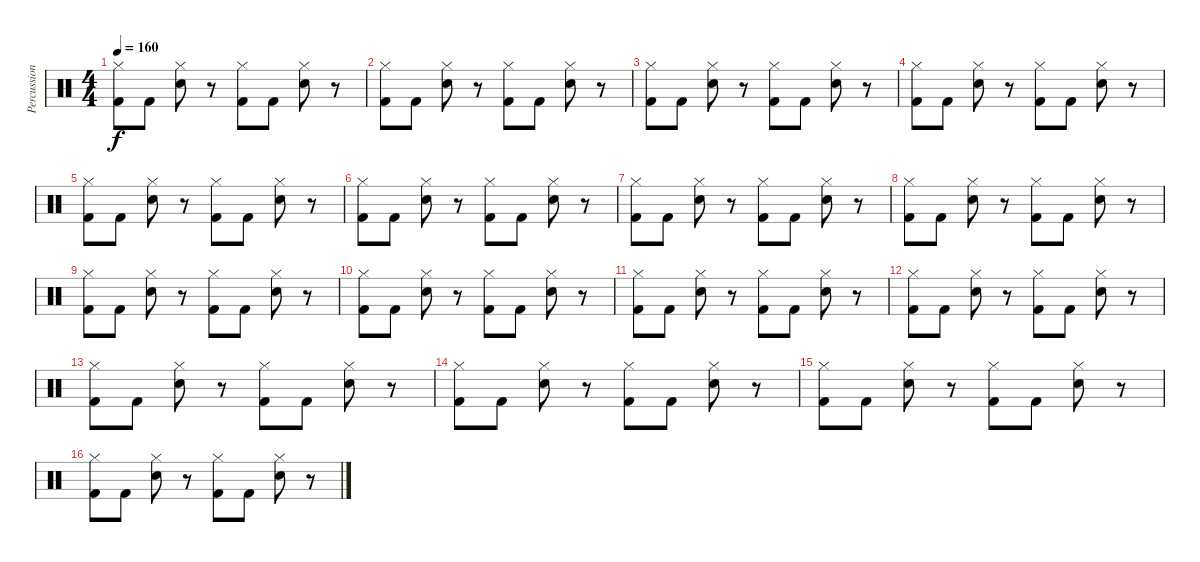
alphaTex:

\track ("Percussion" "Percussion") {instrument percussion}
\staff {score}
\articulation defaults
\ts (4 4)
\tempo 160
\clef neutral
\ks c
("Kick (hit) 2" "Hi-Hat (closed)").8{dy f} "Kick (hit) 2".8 ("Snare (hit) 2" "Hi-Hat (closed)").8 r.8 ("Kick (hit) 2" "Hi-Hat (closed)").8 "Kick (hit) 2".8 ("Snare (hit) 2" "Hi-Hat (closed)").8 r.8 |
("Kick (hit) 2" "Hi-Hat (closed)").8 "Kick (hit) 2".8 ("Snare (hit) 2" "Hi-Hat (closed)").8 r.8 ("Kick (hit) 2" "Hi-Hat (closed)").8 "Kick (hit) 2".8 ("Snare (hit) 2" "Hi-Hat (closed)").8 r.8 |
("Kick (hit) 2" "Hi-Hat (closed)").8 "Kick (hit) 2".8 ("Snare (hit) 2" "Hi-Hat (closed)").8 r.8 ("Kick (hit) 2" "Hi-Hat (closed)").8 "Kick (hit) 2".8 ("Snare (hit) 2" "Hi-Hat (closed)").8 r.8 |
("Kick (hit) 2" "Hi-Hat (closed)").8 "Kick (hit) 2".8 ("Snare (hit) 2" "Hi-Hat (closed)").8 r.8 ("Kick (hit) 2" "Hi-Hat (closed)").8 "Kick (hit) 2".8 ("Snare (hit) 2" "Hi-Hat (closed)").8 r.8 |
("Kick (hit) 2" "Hi-Hat (closed)").8 "Kick (hit) 2".8 ("Snare (hit) 2" "Hi-Hat (closed)").8 r.8 ("Kick (hit) 2" "Hi-Hat (closed)").8 "Kick (hit) 2".8 ("Snare (hit) 2" "Hi-Hat (closed)").8 r.8 |
("Kick (hit) 2" "Hi-Hat (closed)").8 "Kick (hit) 2".8 ("Snare (hit) 2" "Hi-Hat (closed)").8 r.8 ("Kick (hit) 2" "Hi-Hat (closed)").8 "Kick (hit) 2".8 ("Snare (hit) 2" "Hi-Hat (closed)").8 r.8 |
("Kick (hit) 2" "Hi-Hat (closed)").8 "Kick (hit) 2".8 ("Snare (hit) 2" "Hi-Hat (closed)").8 r.8 ("Kick (hit) 2" "Hi-Hat (closed)").8 "Kick (hit) 2".8 ("Snare (hit) 2" "Hi-Hat (closed)").8 r.8 |
("Kick (hit) 2" "Hi-Hat (closed)").8 "Kick (hit) 2".8 ("Snare (hit) 2" "Hi-Hat (closed)").8 r.8 ("Kick (hit) 2" "Hi-Hat (closed)").8 "Kick (hit) 2".8 ("Snare (hit) 2" "Hi-Hat (closed)").8 r.8 |
("Kick (hit) 2" "Hi-Hat (closed)").8 "Kick (hit) 2".8 ("Snare (hit) 2" "Hi-Hat (closed)").8 r.8 ("Kick (hit) 2" "Hi-Hat (closed)").8 "Kick (hit) 2".8 ("Snare (hit) 2" "Hi-Hat (closed)").8 r.8 |
("Kick (hit) 2" "Hi-Hat (closed)").8 "Kick (hit) 2".8 ("Snare (hit) 2" "Hi-Hat (closed)").8 r.8 ("Kick (hit) 2" "Hi-Hat (closed)").8 "Kick (hit) 2".8 ("Snare (hit) 2" "Hi-Hat (closed)").8 r.8 |
("Kick (hit) 2" "Hi-Hat (closed)").8 "Kick (hit) 2".8 ("Snare (hit) 2" "Hi-Hat (closed)").8 r.8 ("Kick (hit) 2" "Hi-Hat (closed)").8 "Kick (hit) 2".8 ("Snare (hit) 2" "Hi-Hat (closed)").8 r.8 |
("Kick (hit) 2" "Hi-Hat (closed)").8 "Kick (hit) 2".8 ("Snare (hit) 2" "Hi-Hat (closed)").8 r.8 ("Kick (hit) 2" "Hi-Hat (closed)").8 "Kick (hit) 2".8 ("Snare (hit) 2" "Hi-Hat (closed)").8 r.8 |
("Kick (hit) 2" "Hi-Hat (closed)").8 "Kick (hit) 2".8 ("Snare (hit) 2" "Hi-Hat (closed)").8 r.8 ("Kick (hit) 2" "Hi-Hat (closed)").8 "Kick (hit) 2".8 ("Snare (hit) 2" "Hi-Hat (closed)").8 r.8 |
("Kick (hit) 2" "Hi-Hat (closed)").8 "Kick (hit) 2".8 ("Snare (hit) 2" "Hi-Hat (closed)").8 r.8 ("Kick (hit) 2" "Hi-Hat (closed)").8 "Kick (hit) 2".8 ("Snare (hit) 2" "Hi-Hat (closed)").8 r.8 |
("Kick (hit) 2" "Hi-Hat (closed)").8 "Kick (hit) 2".8 ("Snare (hit) 2" "Hi-Hat (closed)").8 r.8 ("Kick (hit) 2" "Hi-Hat (closed)").8 "Kick (hit) 2".8 ("Snare (hit) 2" "Hi-Hat (closed)").8 r.8 |
("Kick (hit) 2" "Hi-Hat (closed)").8 "Kick (hit) 2".8 ("Snare (hit) 2" "Hi-Hat (closed)").8 r.8 ("Kick (hit) 2" "Hi-Hat (closed)").8 "Kick (hit) 2".8 ("Snare (hit) 2" "Hi-Hat (closed)").8 r.8
